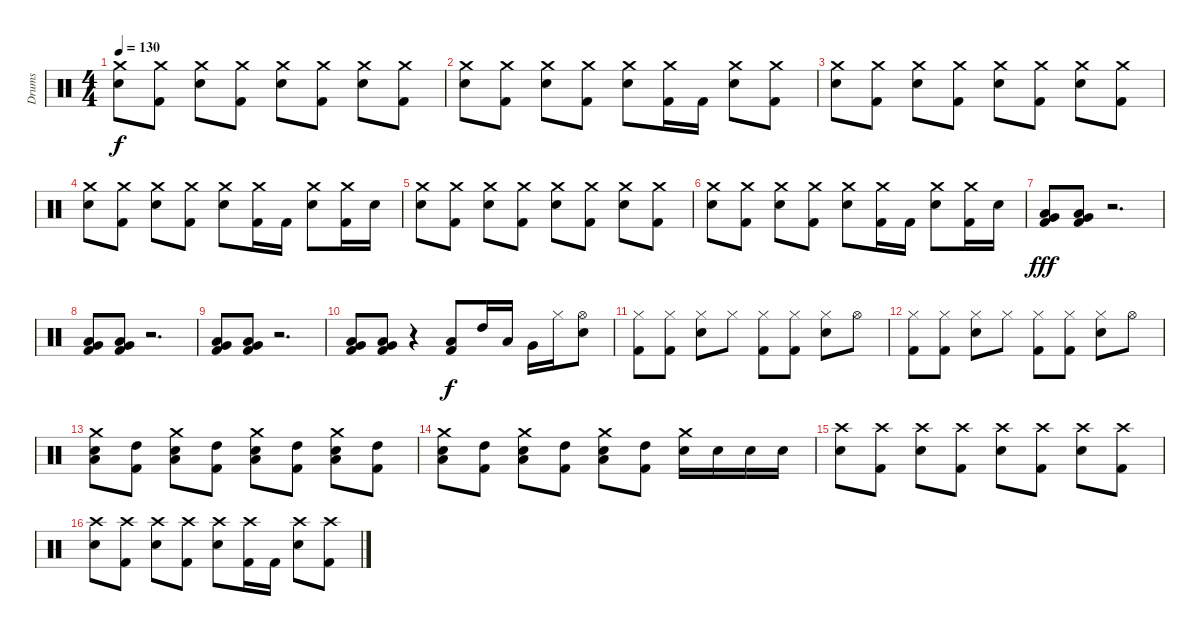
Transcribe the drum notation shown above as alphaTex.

\track ("Drums" "Drums") {instrument percussion}
\staff {score}
\articulation defaults
\ts (4 4)
\tempo 130
\clef neutral
\ks c
("Crash medium (hit)" "Snare (hit) 2").8{dy f} ("Crash medium (hit)" "Kick (hit) 2").8 ("Crash medium (hit)" "Snare (hit) 2").8 ("Crash medium (hit)" "Kick (hit) 2").8 ("Crash medium (hit)" "Snare (hit) 2").8 ("Crash medium (hit)" "Kick (hit) 2").8 ("Crash medium (hit)" "Snare (hit) 2").8 ("Crash medium (hit)" "Kick (hit) 2").8 |
("Crash medium (hit)" "Snare (hit) 2").8 ("Crash medium (hit)" "Kick (hit) 2").8 ("Crash medium (hit)" "Snare (hit) 2").8 ("Crash medium (hit)" "Kick (hit) 2").8 ("Crash medium (hit)" "Snare (hit) 2").8 ("Crash medium (hit)" "Kick (hit) 2").16 "Kick (hit) 2".16 ("Crash medium (hit)" "Snare (hit) 2").8 ("Crash medium (hit)" "Kick (hit) 2").8 |
("Crash medium (hit)" "Snare (hit) 2").8 ("Crash medium (hit)" "Kick (hit) 2").8 ("Crash medium (hit)" "Snare (hit) 2").8 ("Crash medium (hit)" "Kick (hit) 2").8 ("Crash medium (hit)" "Snare (hit) 2").8 ("Crash medium (hit)" "Kick (hit) 2").8 ("Crash medium (hit)" "Snare (hit) 2").8 ("Crash medium (hit)" "Kick (hit) 2").8 |
("Crash medium (hit)" "Snare (hit) 2").8 ("Crash medium (hit)" "Kick (hit) 2").8 ("Crash medium (hit)" "Snare (hit) 2").8 ("Crash medium (hit)" "Kick (hit) 2").8 ("Crash medium (hit)" "Snare (hit) 2").8 ("Crash medium (hit)" "Kick (hit) 2").16 "Kick (hit) 2".16 ("Crash medium (hit)" "Snare (hit) 2").8 ("Crash medium (hit)" "Kick (hit) 2").16 "Snare (hit) 2".16 |
("Crash medium (hit)" "Snare (hit) 2").8 ("Crash medium (hit)" "Kick (hit) 2").8 ("Crash medium (hit)" "Snare (hit) 2").8 ("Crash medium (hit)" "Kick (hit) 2").8 ("Crash medium (hit)" "Snare (hit) 2").8 ("Crash medium (hit)" "Kick (hit) 2").8 ("Crash medium (hit)" "Snare (hit) 2").8 ("Crash medium (hit)" "Kick (hit) 2").8 |
("Crash medium (hit)" "Snare (hit) 2").8 ("Crash medium (hit)" "Kick (hit) 2").8 ("Crash medium (hit)" "Snare (hit) 2").8 ("Crash medium (hit)" "Kick (hit) 2").8 ("Crash medium (hit)" "Snare (hit) 2").8 ("Crash medium (hit)" "Kick (hit) 2").16 "Kick (hit) 2".16 ("Crash medium (hit)" "Snare (hit) 2").8 ("Crash medium (hit)" "Kick (hit) 2").16 "Snare (hit) 2".16 |
("Very Low Tom (hit)" "Low Tom (hit)" "Kick (hit) 2").8{dy fff} ("Very Low Tom (hit)" "Low Tom (hit)" "Kick (hit) 2").8 r.2{d} |
("Very Low Tom (hit)" "Low Tom (hit)" "Kick (hit) 2").8 ("Very Low Tom (hit)" "Low Tom (hit)" "Kick (hit) 2").8 r.2{d} |
("Very Low Tom (hit)" "Low Tom (hit)" "Kick (hit) 2").8 ("Very Low Tom (hit)" "Low Tom (hit)" "Kick (hit) 2").8 r.2{d} |
("Very Low Tom (hit)" "Low Tom (hit)" "Kick (hit) 2").8 ("Very Low Tom (hit)" "Low Tom (hit)" "Kick (hit) 2").8 r.4 ("Low Tom (hit)" "Kick (hit) 2").8{dy f} "High Tom (hit)".16 "Low Tom (hit)".16 "Very Low Tom (hit)".16 "Hi-Hat (closed)".16 ("Hi-Hat (open)" "Snare (hit) 2").8 |
("Hi-Hat (closed)" "Kick (hit) 2").8 ("Hi-Hat (closed)" "Kick (hit) 2").8 ("Hi-Hat (closed)" "Snare (hit) 2").8 "Hi-Hat (closed)".8 ("Hi-Hat (closed)" "Kick (hit) 2").8 ("Hi-Hat (closed)" "Kick (hit) 2").8 ("Hi-Hat (closed)" "Snare (hit) 2").8 "Hi-Hat (open)".8 |
("Hi-Hat (closed)" "Kick (hit) 2").8 ("Hi-Hat (closed)" "Kick (hit) 2").8 ("Hi-Hat (closed)" "Snare (hit) 2").8 "Hi-Hat (closed)".8 ("Hi-Hat (closed)" "Kick (hit) 2").8 ("Hi-Hat (closed)" "Kick (hit) 2").8 ("Hi-Hat (closed)" "Snare (hit) 2").8 "Hi-Hat (open)".8 |
("Crash medium (hit)" "Low Tom (hit)" "Snare (hit) 2").8 ("High Tom (hit)" "Kick (hit) 2").8 ("Crash medium (hit)" "Low Tom (hit)" "Snare (hit) 2").8 ("High Tom (hit)" "Kick (hit) 2").8 ("Crash medium (hit)" "Low Tom (hit)" "Snare (hit) 2").8 ("High Tom (hit)" "Kick (hit) 2").8 ("Crash medium (hit)" "Low Tom (hit)" "Snare (hit) 2").8 ("High Tom (hit)" "Kick (hit) 2").8 |
("Crash medium (hit)" "Low Tom (hit)" "Snare (hit) 2").8 ("High Tom (hit)" "Kick (hit) 2").8 ("Crash medium (hit)" "Low Tom (hit)" "Snare (hit) 2").8 ("High Tom (hit)" "Kick (hit) 2").8 ("Crash medium (hit)" "Low Tom (hit)" "Snare (hit) 2").8 ("High Tom (hit)" "Kick (hit) 2").8 ("Crash medium (hit)" "Snare (hit) 2").16 "Snare (hit) 2".16 "Snare (hit) 2".16 "Snare (hit) 2".16 |
("Crash high (hit)" "Snare (hit) 2").8 ("Crash high (hit)" "Kick (hit) 2").8 ("Crash high (hit)" "Snare (hit) 2").8 ("Crash high (hit)" "Kick (hit) 2").8 ("Crash high (hit)" "Snare (hit) 2").8 ("Crash high (hit)" "Kick (hit) 2").8 ("Crash high (hit)" "Snare (hit) 2").8 ("Crash high (hit)" "Kick (hit) 2").8 |
("Crash high (hit)" "Snare (hit) 2").8 ("Crash high (hit)" "Kick (hit) 2").8 ("Crash high (hit)" "Snare (hit) 2").8 ("Crash high (hit)" "Kick (hit) 2").8 ("Crash high (hit)" "Snare (hit) 2").8 ("Crash high (hit)" "Kick (hit) 2").16 "Kick (hit) 2".16 ("Crash high (hit)" "Snare (hit) 2").8 ("Crash high (hit)" "Kick (hit) 2").8
